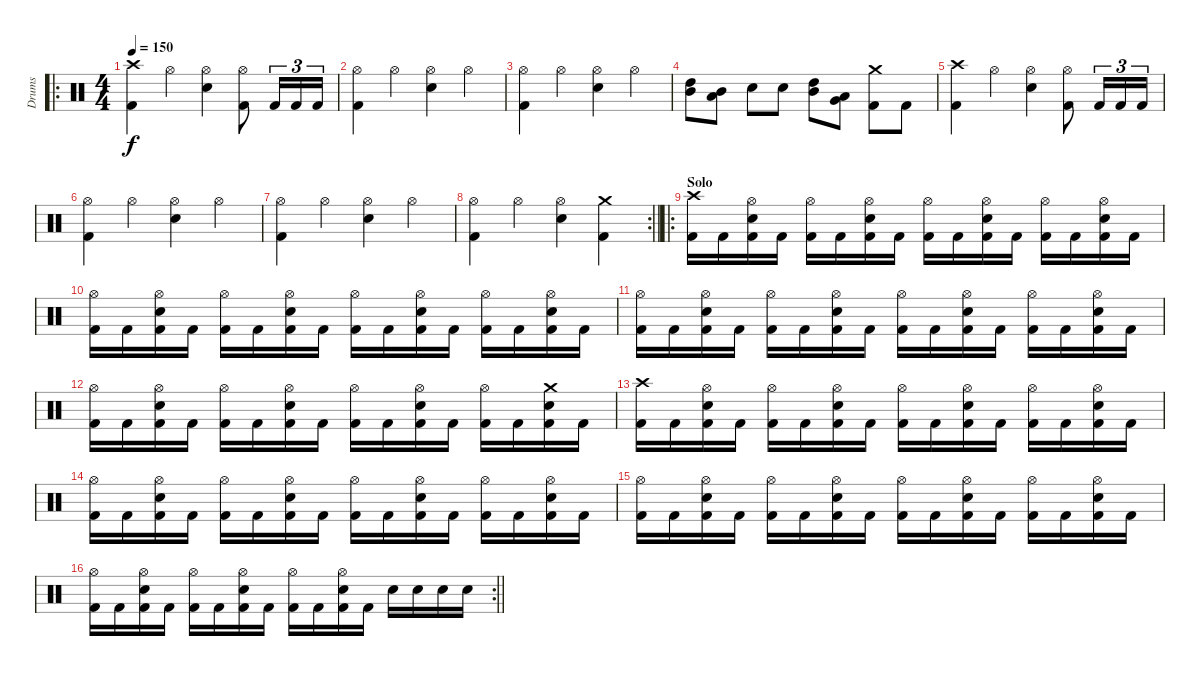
\track ("Drums" "Drums") {instrument percussion}
\staff {score}
\articulation defaults
\ro
\ts (4 4)
\tempo 150
\clef neutral
\ks c
("Crash high (hit)" "Kick (hit) 2").4{dy f} "Hi-Hat (open)".4 ("Hi-Hat (open)" "Snare (hit) 2").4 ("Hi-Hat (open)" "Kick (hit) 2").8 "Kick (hit) 2".16{tu (3 2)} "Kick (hit) 2".16{tu (3 2)} "Kick (hit) 2".16{tu (3 2)} |
("Hi-Hat (open)" "Kick (hit) 2").4 "Hi-Hat (open)".4 ("Hi-Hat (open)" "Snare (hit) 2").4 "Hi-Hat (open)".4 |
("Hi-Hat (open)" "Kick (hit) 2").4 "Hi-Hat (open)".4 ("Hi-Hat (open)" "Snare (hit) 2").4 "Hi-Hat (open)".4 |
("High Tom (hit)" "Mid Tom (hit)").8 ("Mid Tom (hit)" "Low Tom (hit)").8 "Snare (hit) 2".8 "Snare (hit) 2".8 ("Mid Tom (hit)" "High Tom (hit)").8 ("Low Tom (hit)" "Very Low Tom (hit)").8 ("Crash medium (hit)" "Kick (hit) 2").8 "Kick (hit) 2".8 |
("Crash high (hit)" "Kick (hit) 2").4 "Hi-Hat (open)".4 ("Hi-Hat (open)" "Snare (hit) 2").4 ("Hi-Hat (open)" "Kick (hit) 2").8 "Kick (hit) 2".16{tu (3 2)} "Kick (hit) 2".16{tu (3 2)} "Kick (hit) 2".16{tu (3 2)} |
("Hi-Hat (open)" "Kick (hit) 2").4 "Hi-Hat (open)".4 ("Hi-Hat (open)" "Snare (hit) 2").4 "Hi-Hat (open)".4 |
("Hi-Hat (open)" "Kick (hit) 2").4 "Hi-Hat (open)".4 ("Hi-Hat (open)" "Snare (hit) 2").4 "Hi-Hat (open)".4 |
\rc 2
\barLineRight lightlight
("Hi-Hat (open)" "Kick (hit) 2").4 "Hi-Hat (open)".4 ("Hi-Hat (open)" "Snare (hit) 2").4 ("Crash medium (hit)" "Kick (hit) 2").4 |
\ro
\section ("" "Solo")
("Crash high (hit)" "Kick (hit) 2").16 "Kick (hit) 2".16 ("Hi-Hat (open)" "Snare (hit) 2" "Kick (hit) 2").16 "Kick (hit) 2".16 ("Hi-Hat (open)" "Kick (hit) 2").16 "Kick (hit) 2".16 ("Hi-Hat (open)" "Snare (hit) 2" "Kick (hit) 2").16 "Kick (hit) 2".16 ("Hi-Hat (open)" "Kick (hit) 2").16 "Kick (hit) 2".16 ("Hi-Hat (open)" "Snare (hit) 2" "Kick (hit) 2").16 "Kick (hit) 2".16 ("Hi-Hat (open)" "Kick (hit) 2").16 "Kick (hit) 2".16 ("Hi-Hat (open)" "Snare (hit) 2" "Kick (hit) 2").16 "Kick (hit) 2".16 |
("Hi-Hat (open)" "Kick (hit) 2").16 "Kick (hit) 2".16 ("Hi-Hat (open)" "Snare (hit) 2" "Kick (hit) 2").16 "Kick (hit) 2".16 ("Hi-Hat (open)" "Kick (hit) 2").16 "Kick (hit) 2".16 ("Hi-Hat (open)" "Snare (hit) 2" "Kick (hit) 2").16 "Kick (hit) 2".16 ("Hi-Hat (open)" "Kick (hit) 2").16 "Kick (hit) 2".16 ("Hi-Hat (open)" "Snare (hit) 2" "Kick (hit) 2").16 "Kick (hit) 2".16 ("Hi-Hat (open)" "Kick (hit) 2").16 "Kick (hit) 2".16 ("Hi-Hat (open)" "Snare (hit) 2" "Kick (hit) 2").16 "Kick (hit) 2".16 |
("Hi-Hat (open)" "Kick (hit) 2").16 "Kick (hit) 2".16 ("Hi-Hat (open)" "Snare (hit) 2" "Kick (hit) 2").16 "Kick (hit) 2".16 ("Hi-Hat (open)" "Kick (hit) 2").16 "Kick (hit) 2".16 ("Hi-Hat (open)" "Snare (hit) 2" "Kick (hit) 2").16 "Kick (hit) 2".16 ("Hi-Hat (open)" "Kick (hit) 2").16 "Kick (hit) 2".16 ("Hi-Hat (open)" "Snare (hit) 2" "Kick (hit) 2").16 "Kick (hit) 2".16 ("Hi-Hat (open)" "Kick (hit) 2").16 "Kick (hit) 2".16 ("Hi-Hat (open)" "Snare (hit) 2" "Kick (hit) 2").16 "Kick (hit) 2".16 |
("Hi-Hat (open)" "Kick (hit) 2").16 "Kick (hit) 2".16 ("Hi-Hat (open)" "Snare (hit) 2" "Kick (hit) 2").16 "Kick (hit) 2".16 ("Hi-Hat (open)" "Kick (hit) 2").16 "Kick (hit) 2".16 ("Hi-Hat (open)" "Snare (hit) 2" "Kick (hit) 2").16 "Kick (hit) 2".16 ("Hi-Hat (open)" "Kick (hit) 2").16 "Kick (hit) 2".16 ("Hi-Hat (open)" "Snare (hit) 2" "Kick (hit) 2").16 "Kick (hit) 2".16 ("Hi-Hat (open)" "Kick (hit) 2").16 "Kick (hit) 2".16 ("Crash medium (hit)" "Snare (hit) 2" "Kick (hit) 2").16 "Kick (hit) 2".16 |
("Crash high (hit)" "Kick (hit) 2").16 "Kick (hit) 2".16 ("Hi-Hat (open)" "Snare (hit) 2" "Kick (hit) 2").16 "Kick (hit) 2".16 ("Hi-Hat (open)" "Kick (hit) 2").16 "Kick (hit) 2".16 ("Hi-Hat (open)" "Snare (hit) 2" "Kick (hit) 2").16 "Kick (hit) 2".16 ("Hi-Hat (open)" "Kick (hit) 2").16 "Kick (hit) 2".16 ("Hi-Hat (open)" "Snare (hit) 2" "Kick (hit) 2").16 "Kick (hit) 2".16 ("Hi-Hat (open)" "Kick (hit) 2").16 "Kick (hit) 2".16 ("Hi-Hat (open)" "Snare (hit) 2" "Kick (hit) 2").16 "Kick (hit) 2".16 |
("Hi-Hat (open)" "Kick (hit) 2").16 "Kick (hit) 2".16 ("Hi-Hat (open)" "Snare (hit) 2" "Kick (hit) 2").16 "Kick (hit) 2".16 ("Hi-Hat (open)" "Kick (hit) 2").16 "Kick (hit) 2".16 ("Hi-Hat (open)" "Snare (hit) 2" "Kick (hit) 2").16 "Kick (hit) 2".16 ("Hi-Hat (open)" "Kick (hit) 2").16 "Kick (hit) 2".16 ("Hi-Hat (open)" "Snare (hit) 2" "Kick (hit) 2").16 "Kick (hit) 2".16 ("Hi-Hat (open)" "Kick (hit) 2").16 "Kick (hit) 2".16 ("Hi-Hat (open)" "Snare (hit) 2" "Kick (hit) 2").16 "Kick (hit) 2".16 |
("Hi-Hat (open)" "Kick (hit) 2").16 "Kick (hit) 2".16 ("Hi-Hat (open)" "Snare (hit) 2" "Kick (hit) 2").16 "Kick (hit) 2".16 ("Hi-Hat (open)" "Kick (hit) 2").16 "Kick (hit) 2".16 ("Hi-Hat (open)" "Snare (hit) 2" "Kick (hit) 2").16 "Kick (hit) 2".16 ("Hi-Hat (open)" "Kick (hit) 2").16 "Kick (hit) 2".16 ("Hi-Hat (open)" "Snare (hit) 2" "Kick (hit) 2").16 "Kick (hit) 2".16 ("Hi-Hat (open)" "Kick (hit) 2").16 "Kick (hit) 2".16 ("Hi-Hat (open)" "Snare (hit) 2" "Kick (hit) 2").16 "Kick (hit) 2".16 |
\rc 2
\barLineRight lightlight
("Hi-Hat (open)" "Kick (hit) 2").16 "Kick (hit) 2".16 ("Hi-Hat (open)" "Snare (hit) 2" "Kick (hit) 2").16 "Kick (hit) 2".16 ("Hi-Hat (open)" "Kick (hit) 2").16 "Kick (hit) 2".16 ("Hi-Hat (open)" "Snare (hit) 2" "Kick (hit) 2").16 "Kick (hit) 2".16 ("Hi-Hat (open)" "Kick (hit) 2").16 "Kick (hit) 2".16 ("Hi-Hat (open)" "Snare (hit) 2" "Kick (hit) 2").16 "Kick (hit) 2".16 "Snare (hit) 2".16 "Snare (hit) 2".16 "Snare (hit) 2".16 "Snare (hit) 2".16
